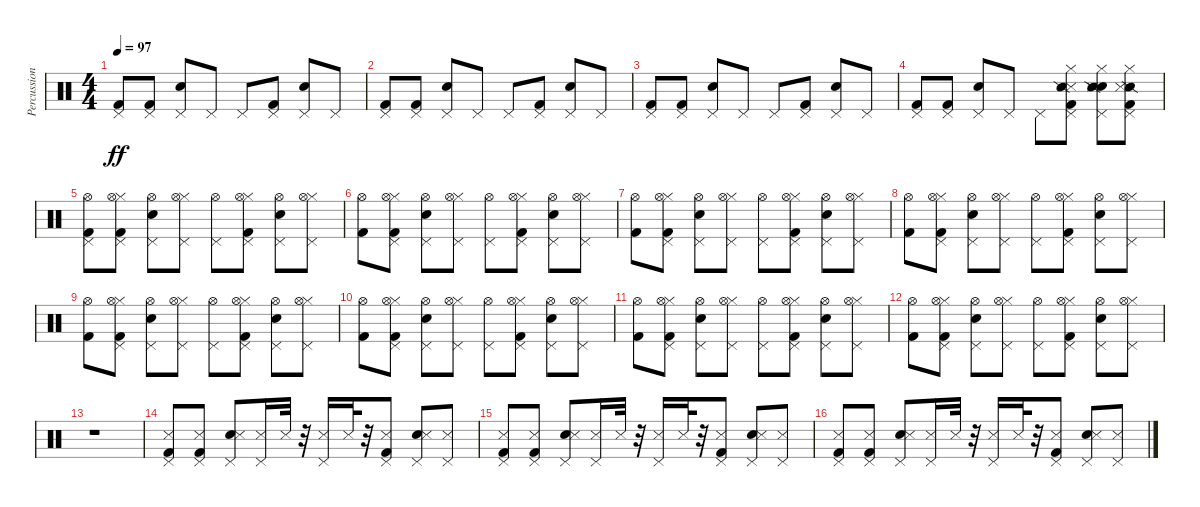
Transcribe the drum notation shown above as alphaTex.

\track ("Percussion" "Percussion") {instrument percussion}
\staff {score}
\articulation defaults
\ts (4 4)
\tempo 97
\clef neutral
\ks c
("Pedal Hi-Hat (hit)" "Kick (hit) 2").8{dy ff} ("Kick (hit) 2" "Pedal Hi-Hat (hit)").8 ("Electric Snare (hit)" "Pedal Hi-Hat (hit)").8 "Pedal Hi-Hat (hit)".8 "Pedal Hi-Hat (hit)".8 ("Kick (hit) 2" "Pedal Hi-Hat (hit)").8 ("Electric Snare (hit)" "Pedal Hi-Hat (hit)").8 "Pedal Hi-Hat (hit)".8 |
("Pedal Hi-Hat (hit)" "Kick (hit) 2").8 ("Kick (hit) 2" "Pedal Hi-Hat (hit)").8 ("Electric Snare (hit)" "Pedal Hi-Hat (hit)").8 "Pedal Hi-Hat (hit)".8 "Pedal Hi-Hat (hit)".8 ("Kick (hit) 2" "Pedal Hi-Hat (hit)").8 ("Electric Snare (hit)" "Pedal Hi-Hat (hit)").8 "Pedal Hi-Hat (hit)".8 |
("Pedal Hi-Hat (hit)" "Kick (hit) 2").8 ("Kick (hit) 2" "Pedal Hi-Hat (hit)").8 ("Electric Snare (hit)" "Pedal Hi-Hat (hit)").8 "Pedal Hi-Hat (hit)".8 "Pedal Hi-Hat (hit)".8 ("Kick (hit) 2" "Pedal Hi-Hat (hit)").8 ("Electric Snare (hit)" "Pedal Hi-Hat (hit)").8 "Pedal Hi-Hat (hit)".8 |
("Pedal Hi-Hat (hit)" "Kick (hit) 2").8 ("Kick (hit) 2" "Pedal Hi-Hat (hit)").8 ("Electric Snare (hit)" "Pedal Hi-Hat (hit)").8 "Pedal Hi-Hat (hit)".8 "Pedal Hi-Hat (hit)".8 ("Snare (side stick) 3" "Snare (side stick) 2" "Hi-Hat (closed)" "Pedal Hi-Hat (hit)" "Kick (hit) 2").8 ("Electric Snare (hit)" "Pedal Hi-Hat (hit)" "Hi-Hat (closed)" "Snare (side stick) 2" "Snare (side stick) 3").8 ("Pedal Hi-Hat (hit)" "Hi-Hat (closed)" "Snare (side stick) 2" "Kick (hit) 2" "Snare (side stick) 3").8 |
("Kick (hit) 2" "Pedal Hi-Hat (hit)" "Hi-Hat (open)").8 ("Kick (hit) 2" "Pedal Hi-Hat (hit)" "Hi-Hat (closed)" "Hi-Hat (open)").8 ("Electric Snare (hit)" "Pedal Hi-Hat (hit)" "Hi-Hat (open)").8 ("Pedal Hi-Hat (hit)" "Hi-Hat (closed)" "Hi-Hat (open)").8 ("Pedal Hi-Hat (hit)" "Hi-Hat (open)").8 ("Kick (hit) 2" "Pedal Hi-Hat (hit)" "Hi-Hat (closed)" "Hi-Hat (open)").8 ("Electric Snare (hit)" "Pedal Hi-Hat (hit)" "Hi-Hat (open)").8 ("Pedal Hi-Hat (hit)" "Hi-Hat (closed)" "Hi-Hat (open)").8 |
("Hi-Hat (open)" "Kick (hit) 2").8 ("Kick (hit) 2" "Pedal Hi-Hat (hit)" "Hi-Hat (closed)" "Hi-Hat (open)").8 ("Electric Snare (hit)" "Pedal Hi-Hat (hit)" "Hi-Hat (open)").8 ("Pedal Hi-Hat (hit)" "Hi-Hat (closed)" "Hi-Hat (open)").8 ("Pedal Hi-Hat (hit)" "Hi-Hat (open)").8 ("Kick (hit) 2" "Pedal Hi-Hat (hit)" "Hi-Hat (closed)" "Hi-Hat (open)").8 ("Electric Snare (hit)" "Pedal Hi-Hat (hit)" "Hi-Hat (open)").8 ("Pedal Hi-Hat (hit)" "Hi-Hat (closed)" "Hi-Hat (open)").8 |
("Kick (hit) 2" "Hi-Hat (open)").8 ("Kick (hit) 2" "Pedal Hi-Hat (hit)" "Hi-Hat (closed)" "Hi-Hat (open)").8 ("Electric Snare (hit)" "Pedal Hi-Hat (hit)" "Hi-Hat (open)").8 ("Pedal Hi-Hat (hit)" "Hi-Hat (closed)" "Hi-Hat (open)").8 ("Pedal Hi-Hat (hit)" "Hi-Hat (open)").8 ("Kick (hit) 2" "Pedal Hi-Hat (hit)" "Hi-Hat (closed)" "Hi-Hat (open)").8 ("Electric Snare (hit)" "Pedal Hi-Hat (hit)" "Hi-Hat (open)").8 ("Pedal Hi-Hat (hit)" "Hi-Hat (closed)" "Hi-Hat (open)").8 |
("Kick (hit) 2" "Hi-Hat (open)").8 ("Kick (hit) 2" "Pedal Hi-Hat (hit)" "Hi-Hat (closed)" "Hi-Hat (open)").8 ("Electric Snare (hit)" "Pedal Hi-Hat (hit)" "Hi-Hat (open)").8 ("Pedal Hi-Hat (hit)" "Hi-Hat (closed)" "Hi-Hat (open)").8 ("Pedal Hi-Hat (hit)" "Hi-Hat (open)").8 ("Kick (hit) 2" "Pedal Hi-Hat (hit)" "Hi-Hat (closed)" "Hi-Hat (open)").8 ("Electric Snare (hit)" "Pedal Hi-Hat (hit)" "Hi-Hat (open)").8 ("Pedal Hi-Hat (hit)" "Hi-Hat (closed)" "Hi-Hat (open)").8 |
("Hi-Hat (open)" "Kick (hit) 2").8 ("Kick (hit) 2" "Pedal Hi-Hat (hit)" "Hi-Hat (closed)" "Hi-Hat (open)").8 ("Electric Snare (hit)" "Pedal Hi-Hat (hit)" "Hi-Hat (open)").8 ("Pedal Hi-Hat (hit)" "Hi-Hat (closed)" "Hi-Hat (open)").8 ("Pedal Hi-Hat (hit)" "Hi-Hat (open)").8 ("Kick (hit) 2" "Pedal Hi-Hat (hit)" "Hi-Hat (closed)" "Hi-Hat (open)").8 ("Electric Snare (hit)" "Pedal Hi-Hat (hit)" "Hi-Hat (open)").8 ("Pedal Hi-Hat (hit)" "Hi-Hat (closed)" "Hi-Hat (open)").8 |
("Hi-Hat (open)" "Kick (hit) 2").8 ("Kick (hit) 2" "Pedal Hi-Hat (hit)" "Hi-Hat (closed)" "Hi-Hat (open)").8 ("Electric Snare (hit)" "Pedal Hi-Hat (hit)" "Hi-Hat (open)").8 ("Pedal Hi-Hat (hit)" "Hi-Hat (closed)" "Hi-Hat (open)").8 ("Pedal Hi-Hat (hit)" "Hi-Hat (open)").8 ("Kick (hit) 2" "Pedal Hi-Hat (hit)" "Hi-Hat (closed)" "Hi-Hat (open)").8 ("Electric Snare (hit)" "Pedal Hi-Hat (hit)" "Hi-Hat (open)").8 ("Pedal Hi-Hat (hit)" "Hi-Hat (closed)" "Hi-Hat (open)").8 |
("Kick (hit) 2" "Hi-Hat (open)").8 ("Kick (hit) 2" "Pedal Hi-Hat (hit)" "Hi-Hat (closed)" "Hi-Hat (open)").8 ("Electric Snare (hit)" "Pedal Hi-Hat (hit)" "Hi-Hat (open)").8 ("Pedal Hi-Hat (hit)" "Hi-Hat (closed)" "Hi-Hat (open)").8 ("Pedal Hi-Hat (hit)" "Hi-Hat (open)").8 ("Kick (hit) 2" "Pedal Hi-Hat (hit)" "Hi-Hat (closed)" "Hi-Hat (open)").8 ("Electric Snare (hit)" "Pedal Hi-Hat (hit)" "Hi-Hat (open)").8 ("Pedal Hi-Hat (hit)" "Hi-Hat (closed)" "Hi-Hat (open)").8 |
("Kick (hit) 2" "Hi-Hat (open)").8 ("Kick (hit) 2" "Pedal Hi-Hat (hit)" "Hi-Hat (closed)" "Hi-Hat (open)").8 ("Electric Snare (hit)" "Pedal Hi-Hat (hit)" "Hi-Hat (open)").8 ("Pedal Hi-Hat (hit)" "Hi-Hat (closed)" "Hi-Hat (open)").8 ("Pedal Hi-Hat (hit)" "Hi-Hat (open)").8 ("Kick (hit) 2" "Pedal Hi-Hat (hit)" "Hi-Hat (closed)" "Hi-Hat (open)").8 ("Electric Snare (hit)" "Pedal Hi-Hat (hit)" "Hi-Hat (open)").8 ("Pedal Hi-Hat (hit)" "Hi-Hat (closed)" "Hi-Hat (open)").8 |
r.1 |
("Snare (side stick) 3" "Pedal Hi-Hat (hit)" "Kick (hit) 2").8 ("Kick (hit) 2" "Pedal Hi-Hat (hit)" "Snare (side stick) 3").8 ("Electric Snare (hit)" "Pedal Hi-Hat (hit)" "Snare (side stick) 3").8 ("Pedal Hi-Hat (hit)" "Snare (side stick) 3").16 "Snare (side stick) 3".32 r.32 ("Pedal Hi-Hat (hit)" "Snare (side stick) 3").16 "Snare (side stick) 3".32 r.32 ("Pedal Hi-Hat (hit)" "Kick (hit) 2" "Snare (side stick) 3").8 ("Electric Snare (hit)" "Pedal Hi-Hat (hit)" "Snare (side stick) 3").8 ("Pedal Hi-Hat (hit)" "Snare (side stick) 3").8 |
("Kick (hit) 2" "Pedal Hi-Hat (hit)" "Snare (side stick) 3").8 ("Kick (hit) 2" "Pedal Hi-Hat (hit)" "Snare (side stick) 3").8 ("Electric Snare (hit)" "Pedal Hi-Hat (hit)" "Snare (side stick) 3").8 ("Pedal Hi-Hat (hit)" "Snare (side stick) 3").16 "Snare (side stick) 3".32 r.32 ("Pedal Hi-Hat (hit)" "Snare (side stick) 3").16 "Snare (side stick) 3".32 r.32 ("Pedal Hi-Hat (hit)" "Kick (hit) 2" "Snare (side stick) 3").8 ("Electric Snare (hit)" "Pedal Hi-Hat (hit)" "Snare (side stick) 3").8 ("Pedal Hi-Hat (hit)" "Snare (side stick) 3").8 |
("Snare (side stick) 3" "Pedal Hi-Hat (hit)" "Kick (hit) 2").8 ("Kick (hit) 2" "Pedal Hi-Hat (hit)" "Snare (side stick) 3").8 ("Electric Snare (hit)" "Pedal Hi-Hat (hit)" "Snare (side stick) 3").8 ("Pedal Hi-Hat (hit)" "Snare (side stick) 3").16 "Snare (side stick) 3".32 r.32 ("Pedal Hi-Hat (hit)" "Snare (side stick) 3").16 "Snare (side stick) 3".32 r.32 ("Pedal Hi-Hat (hit)" "Kick (hit) 2" "Snare (side stick) 3").8 ("Electric Snare (hit)" "Pedal Hi-Hat (hit)" "Snare (side stick) 3").8 ("Pedal Hi-Hat (hit)" "Snare (side stick) 3").8
